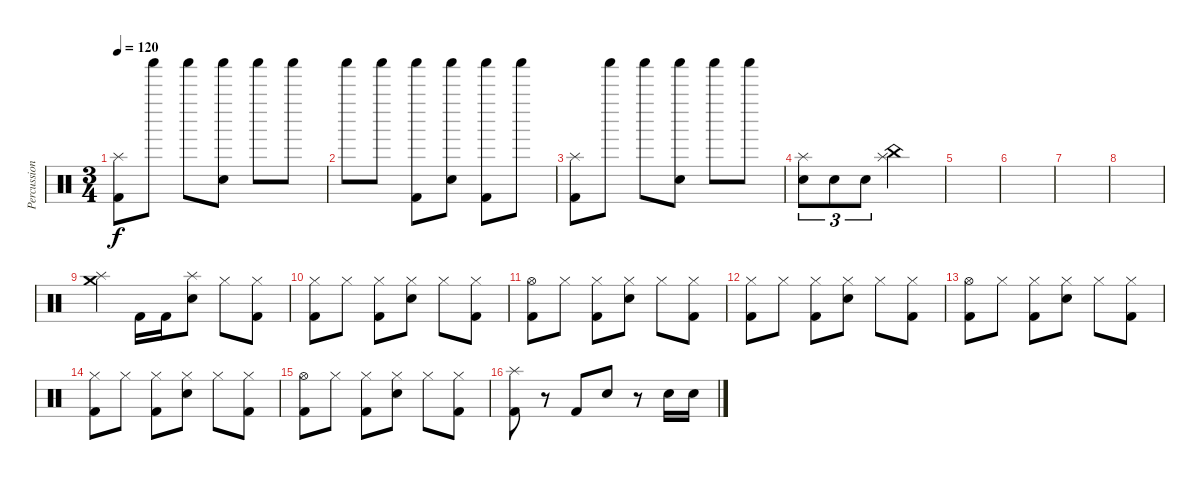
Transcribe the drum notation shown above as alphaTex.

\track ("Percussion" "Percussion") {instrument percussion}
\staff {score}
\articulation defaults
\ts (3 4)
\tempo 120
\clef neutral
\ks c
("Splash (hit)" "Kick (hit) 2").8{dy f} "Shaker (hit)".8 "Shaker (hit)".8 ("Shaker (hit)" "Hand Clap (hit)").8 "Shaker (hit)".8 "Shaker (hit)".8 |
"Shaker (hit)".8 "Shaker (hit)".8 ("Shaker (hit)" "Kick (hit) 2").8 ("Shaker (hit)" "Hand Clap (hit)").8 ("Shaker (hit)" "Kick (hit) 2").8 "Shaker (hit)".8 |
("Splash (hit)" "Kick (hit) 2").8 "Shaker (hit)".8 "Shaker (hit)".8 ("Shaker (hit)" "Hand Clap (hit)").8 "Shaker (hit)".8 "Shaker (hit)".8 |
("Splash (hit)" "Electric Snare (hit)").8{tu (3 2)} "Electric Snare (hit)".8{tu (3 2)} "Electric Snare (hit)".8{tu (3 2)} ("China (hit)" "Splash (hit)").2 |
|
|
|
|
("Crash medium (hit)" "Splash (hit)").4 "Kick (hit) 2".16 "Kick (hit) 2".16 ("Splash (hit)" "Electric Snare (hit)").8 "Hi-Hat (closed)".8 ("Hi-Hat (closed)" "Kick (hit) 2").8 |
("Hi-Hat (closed)" "Kick (hit) 2").8 "Hi-Hat (closed)".8 ("Hi-Hat (closed)" "Kick (hit) 2").8 ("Hi-Hat (closed)" "Electric Snare (hit)").8 "Hi-Hat (closed)".8 ("Hi-Hat (closed)" "Kick (hit) 2").8 |
("Hi-Hat (open)" "Kick (hit) 2").8 "Hi-Hat (closed)".8 ("Hi-Hat (closed)" "Kick (hit) 2").8 ("Hi-Hat (closed)" "Electric Snare (hit)").8 "Hi-Hat (closed)".8 ("Hi-Hat (closed)" "Kick (hit) 2").8 |
("Hi-Hat (closed)" "Kick (hit) 2").8 "Hi-Hat (closed)".8 ("Hi-Hat (closed)" "Kick (hit) 2").8 ("Hi-Hat (closed)" "Electric Snare (hit)").8 "Hi-Hat (closed)".8 ("Hi-Hat (closed)" "Kick (hit) 2").8 |
("Hi-Hat (open)" "Kick (hit) 2").8 "Hi-Hat (closed)".8 ("Hi-Hat (closed)" "Kick (hit) 2").8 ("Hi-Hat (closed)" "Electric Snare (hit)").8 "Hi-Hat (closed)".8 ("Hi-Hat (closed)" "Kick (hit) 2").8 |
("Hi-Hat (closed)" "Kick (hit) 2").8 "Hi-Hat (closed)".8 ("Hi-Hat (closed)" "Kick (hit) 2").8 ("Hi-Hat (closed)" "Electric Snare (hit)").8 "Hi-Hat (closed)".8 ("Hi-Hat (closed)" "Kick (hit) 2").8 |
("Hi-Hat (open)" "Kick (hit) 2").8 "Hi-Hat (closed)".8 ("Hi-Hat (closed)" "Kick (hit) 2").8 ("Hi-Hat (closed)" "Electric Snare (hit)").8 "Hi-Hat (closed)".8 ("Hi-Hat (closed)" "Kick (hit) 2").8 |
("Splash (hit)" "Kick (hit) 2").8 r.8 "Kick (hit) 2".8 "Electric Snare (hit)".8 r.8 "Electric Snare (hit)".16 "Electric Snare (hit)".16
